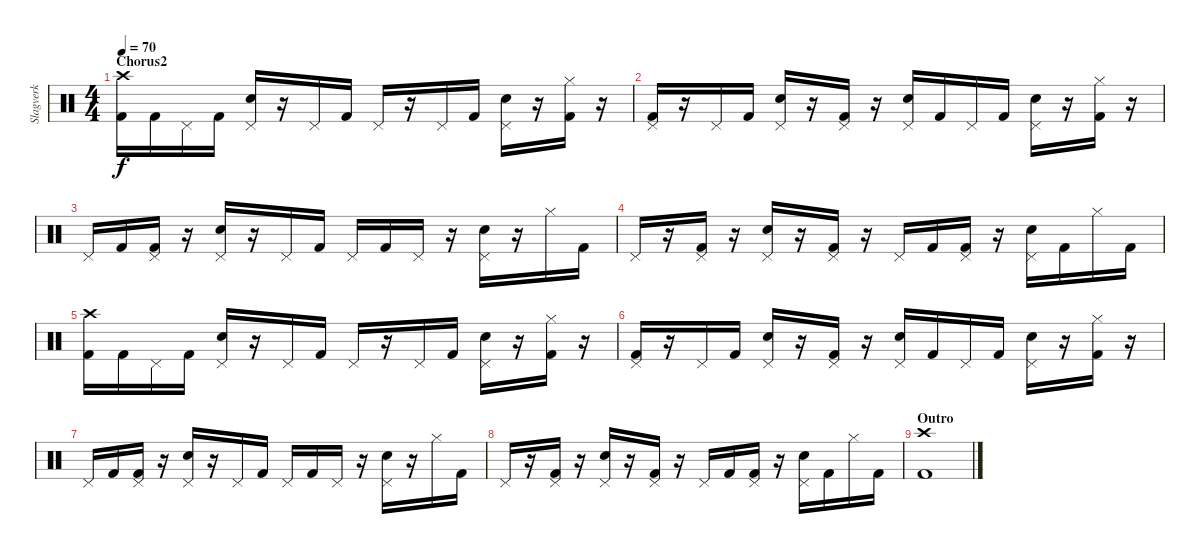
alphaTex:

\track ("Slagverk" "Slagverk") {instrument percussion}
\staff {score}
\articulation defaults
\ts (4 4)
\section ("" "Chorus2")
\tempo 70
\clef neutral
\ks c
("Crash high (hit)" "Kick (hit) 2").16{dy f} "Kick (hit) 2".16 "Pedal Hi-Hat (hit)".16 "Kick (hit) 2".16 ("Pedal Hi-Hat (hit)" "Electric Snare (hit)").16 r.16 "Pedal Hi-Hat (hit)".16 "Kick (hit) 2".16 "Pedal Hi-Hat (hit)".16 r.16 "Pedal Hi-Hat (hit)".16 "Kick (hit) 2".16 ("Pedal Hi-Hat (hit)" "Electric Snare (hit)").16 r.16 ("Hi-Hat (closed)" "Kick (hit) 2").16 r.16 |
("Pedal Hi-Hat (hit)" "Kick (hit) 2").16 r.16 "Pedal Hi-Hat (hit)".16 "Kick (hit) 2".16 ("Pedal Hi-Hat (hit)" "Electric Snare (hit)").16 r.16 ("Pedal Hi-Hat (hit)" "Kick (hit) 2").16 r.16 ("Pedal Hi-Hat (hit)" "Electric Snare (hit)").16 "Kick (hit) 2".16 "Pedal Hi-Hat (hit)".16 "Kick (hit) 2".16 ("Pedal Hi-Hat (hit)" "Electric Snare (hit)").16 r.16 ("Hi-Hat (closed)" "Kick (hit) 2").16 r.16 |
"Pedal Hi-Hat (hit)".16 "Kick (hit) 2".16 ("Pedal Hi-Hat (hit)" "Kick (hit) 2").16 r.16 ("Pedal Hi-Hat (hit)" "Electric Snare (hit)").16 r.16 "Pedal Hi-Hat (hit)".16 "Kick (hit) 2".16 "Pedal Hi-Hat (hit)".16 "Kick (hit) 2".16 "Pedal Hi-Hat (hit)".16 r.16 ("Pedal Hi-Hat (hit)" "Electric Snare (hit)").16 r.16 "Hi-Hat (closed)".16 "Kick (hit) 2".16 |
"Pedal Hi-Hat (hit)".16 r.16 ("Pedal Hi-Hat (hit)" "Kick (hit) 2").16 r.16 ("Pedal Hi-Hat (hit)" "Electric Snare (hit)").16 r.16 ("Pedal Hi-Hat (hit)" "Kick (hit) 2").16 r.16 "Pedal Hi-Hat (hit)".16 "Kick (hit) 2".16 ("Pedal Hi-Hat (hit)" "Kick (hit) 2").16 r.16 ("Pedal Hi-Hat (hit)" "Electric Snare (hit)").16 "Kick (hit) 2".16 "Hi-Hat (closed)".16 "Kick (hit) 2".16 |
("Crash high (hit)" "Kick (hit) 2").16 "Kick (hit) 2".16 "Pedal Hi-Hat (hit)".16 "Kick (hit) 2".16 ("Pedal Hi-Hat (hit)" "Electric Snare (hit)").16 r.16 "Pedal Hi-Hat (hit)".16 "Kick (hit) 2".16 "Pedal Hi-Hat (hit)".16 r.16 "Pedal Hi-Hat (hit)".16 "Kick (hit) 2".16 ("Pedal Hi-Hat (hit)" "Electric Snare (hit)").16 r.16 ("Hi-Hat (closed)" "Kick (hit) 2").16 r.16 |
("Pedal Hi-Hat (hit)" "Kick (hit) 2").16 r.16 "Pedal Hi-Hat (hit)".16 "Kick (hit) 2".16 ("Pedal Hi-Hat (hit)" "Electric Snare (hit)").16 r.16 ("Pedal Hi-Hat (hit)" "Kick (hit) 2").16 r.16 ("Pedal Hi-Hat (hit)" "Electric Snare (hit)").16 "Kick (hit) 2".16 "Pedal Hi-Hat (hit)".16 "Kick (hit) 2".16 ("Pedal Hi-Hat (hit)" "Electric Snare (hit)").16 r.16 ("Hi-Hat (closed)" "Kick (hit) 2").16 r.16 |
"Pedal Hi-Hat (hit)".16 "Kick (hit) 2".16 ("Pedal Hi-Hat (hit)" "Kick (hit) 2").16 r.16 ("Pedal Hi-Hat (hit)" "Electric Snare (hit)").16 r.16 "Pedal Hi-Hat (hit)".16 "Kick (hit) 2".16 "Pedal Hi-Hat (hit)".16 "Kick (hit) 2".16 "Pedal Hi-Hat (hit)".16 r.16 ("Pedal Hi-Hat (hit)" "Electric Snare (hit)").16 r.16 "Hi-Hat (closed)".16 "Kick (hit) 2".16 |
"Pedal Hi-Hat (hit)".16 r.16 ("Pedal Hi-Hat (hit)" "Kick (hit) 2").16 r.16 ("Pedal Hi-Hat (hit)" "Electric Snare (hit)").16 r.16 ("Pedal Hi-Hat (hit)" "Kick (hit) 2").16 r.16 "Pedal Hi-Hat (hit)".16 "Kick (hit) 2".16 ("Pedal Hi-Hat (hit)" "Kick (hit) 2").16 r.16 ("Pedal Hi-Hat (hit)" "Electric Snare (hit)").16 "Kick (hit) 2".16 "Hi-Hat (closed)".16 "Kick (hit) 2".16 |
\section ("" "Outro")
("Crash high (hit)" "Kick (hit) 2").1
